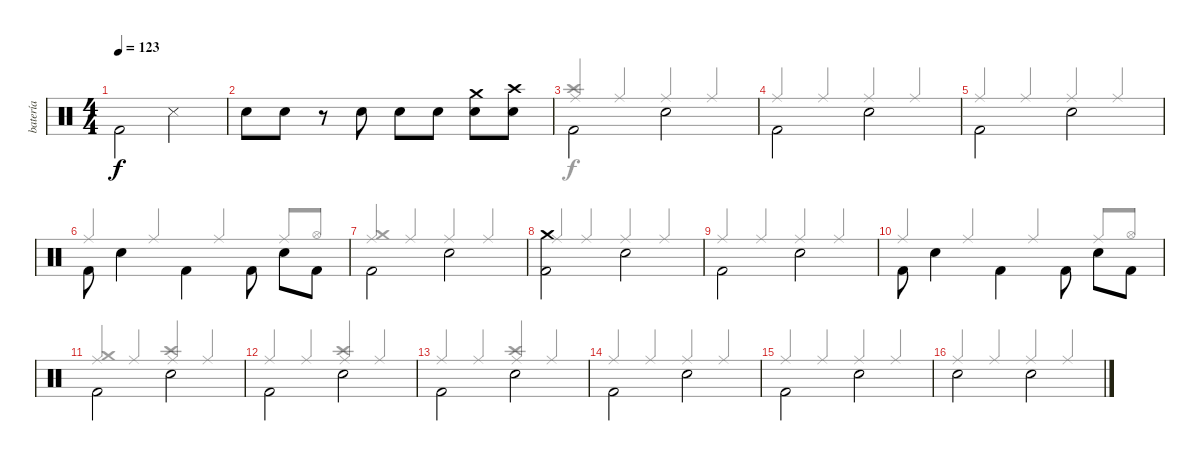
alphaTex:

\track ("batería" "batería") {instrument percussion}
\staff {score}
\articulation defaults
\voice
\ts (4 4)
\tempo 123
\clef neutral
\ks c "Kick (hit) 2".2{dy f beam Down} "Snare (side stick) 3".2{beam Down}
|
"Snare (hit) 2".8 "Snare (hit) 2".8 r.8 "Snare (hit) 2".8{beam Down} "Snare (hit) 2".8{beam Down} "Snare (hit) 2".8{beam Down} ("Snare (hit) 2" "Crash medium (hit)").8 ("Snare (hit) 2" "Crash high (hit)").8 |
"Kick (hit) 2".2{beam Down} "Snare (hit) 2".2{beam Down} |
"Kick (hit) 2".2{beam Down} "Snare (hit) 2".2{beam Down} |
"Kick (hit) 2".2{beam Down} "Snare (hit) 2".2{beam Down} |
"Kick (hit) 2".8{beam Down} "Snare (hit) 2".4{beam Down} "Kick (hit) 2".4{beam Down} "Kick (hit) 2".8{beam Down} "Snare (hit) 2".8{beam Down} "Kick (hit) 2".8{beam Down} |
"Kick (hit) 2".2{beam Down} "Snare (hit) 2".2{beam Down} |
("Kick (hit) 2" "Crash medium (hit)").2{beam Down} "Snare (hit) 2".2{beam Down} |
"Kick (hit) 2".2{beam Down} "Snare (hit) 2".2{beam Down} |
"Kick (hit) 2".8{beam Down} "Snare (hit) 2".4{beam Down} "Kick (hit) 2".4{beam Down} "Kick (hit) 2".8{beam Down} "Snare (hit) 2".8{beam Down} "Kick (hit) 2".8{beam Down} |
"Kick (hit) 2".2{beam Down} "Snare (hit) 2".2{beam Down} |
"Kick (hit) 2".2{beam Down} "Snare (hit) 2".2{beam Down} |
"Kick (hit) 2".2{beam Down} "Snare (hit) 2".2{beam Down} |
"Kick (hit) 2".2{beam Down} "Snare (hit) 2".2{beam Down} |
"Kick (hit) 2".2{beam Down} "Snare (hit) 2".2{beam Down} |
"Snare (hit) 2".2{beam Down} "Snare (hit) 2".2{beam Down}
\voice
\clef neutral
\ottava regular
\simile none
\ks c
|
|
("Crash high (hit)" "Ride (middle)").4{beam Up} "Ride (middle)".4{beam Up} "Ride (middle)".4{beam Up} "Ride (middle)".4{beam Up} |
"Ride (middle)".4{beam Up} "Ride (middle)".4{beam Up} "Ride (middle)".4{beam Up} "Ride (middle)".4{beam Up} |
"Ride (middle)".4{beam Up} "Ride (middle)".4{beam Up} "Ride (middle)".4{beam Up} "Ride (middle)".4{beam Up} |
"Ride (middle)".4{beam Up} "Ride (middle)".4{beam Up} "Ride (middle)".4{beam Up} "Ride (middle)".8{beam Up} "Hi-Hat (open)".8{beam Up} |
("Ride (middle)" "Crash medium (hit)").4{beam Up} "Ride (middle)".4{beam Up} "Ride (middle)".4{beam Up} "Ride (middle)".4{beam Up} |
"Ride (middle)".4{beam Up} "Ride (middle)".4{beam Up} "Ride (middle)".4{beam Up} "Ride (middle)".4{beam Up} |
"Ride (middle)".4{beam Up} "Ride (middle)".4{beam Up} "Ride (middle)".4{beam Up} "Ride (middle)".4{beam Up} |
"Ride (middle)".4{beam Up} "Ride (middle)".4{beam Up} "Ride (middle)".4{beam Up} "Ride (middle)".8{beam Up} "Hi-Hat (open)".8{beam Up} |
("Crash medium (hit)" "Ride (middle)").4{beam Up} "Ride (middle)".4{beam Up} ("Crash high (hit)" "Ride (middle)").4{beam Up} "Ride (middle)".4{beam Up} |
"Ride (middle)".4{beam Up} "Ride (middle)".4{beam Up} ("Ride (middle)" "Crash high (hit)").4{beam Up} "Ride (middle)".4{beam Up} |
"Ride (middle)".4{beam Up} "Ride (middle)".4{beam Up} ("Crash high (hit)" "Ride (middle)").4{beam Up} "Ride (middle)".4{beam Up} |
"Ride (middle)".4{beam Up} "Ride (middle)".4{beam Up} "Ride (middle)".4{beam Up} "Ride (middle)".4{beam Up} |
"Ride (middle)".4{beam Up} "Ride (middle)".4{beam Up} "Ride (middle)".4{beam Up} "Ride (middle)".4{beam Up} |
"Ride (middle)".4{beam Up} "Ride (middle)".4{beam Up} "Ride (middle)".4{beam Up} "Ride (middle)".4{beam Up}
